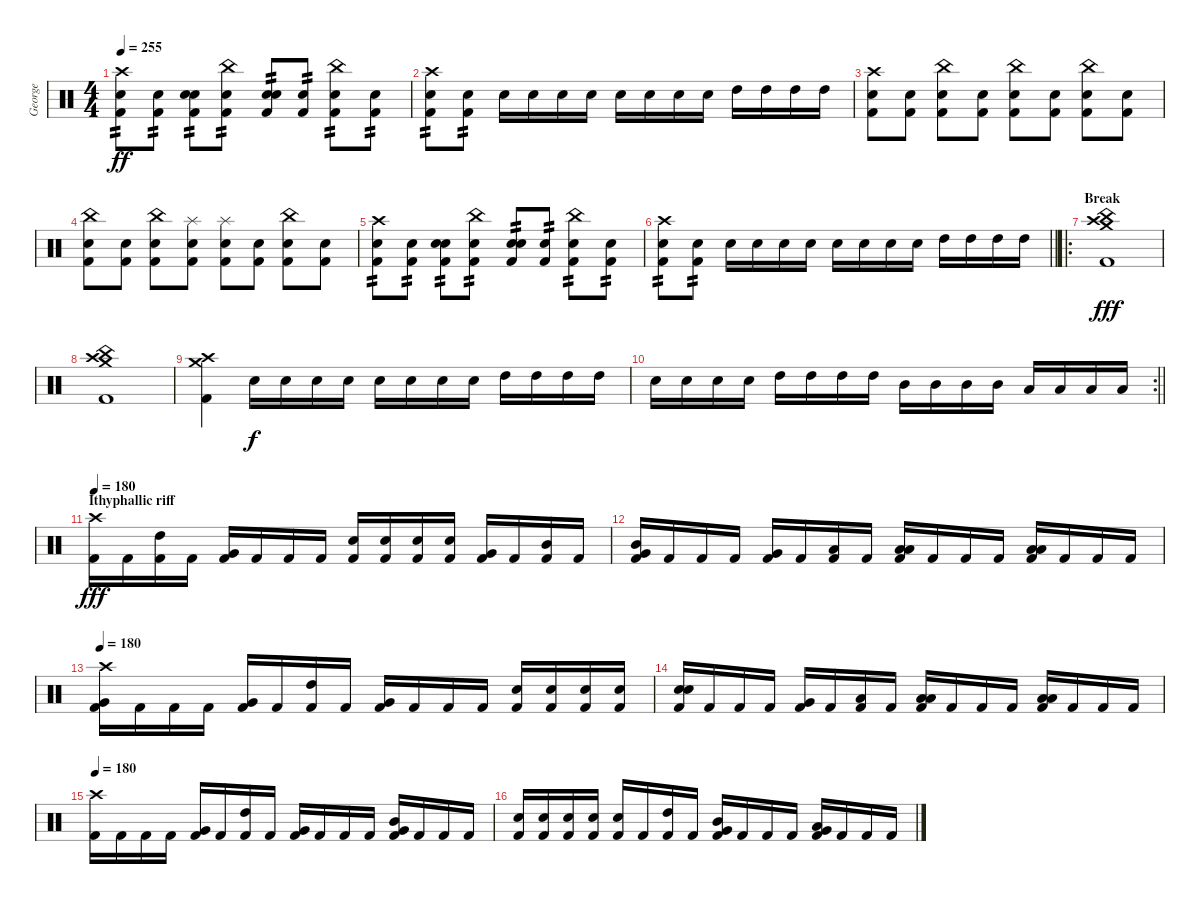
\track ("George" "George") {instrument percussion}
\staff {score}
\articulation defaults
\ts (4 4)
\tempo 255
\clef neutral
\ks c
("Crash high (hit)" "Snare (hit) 2" "Kick (hit) 2").8{tp 2 dy ff} ("Snare (hit) 2" "Kick (hit) 2").8{tp 2} ("Snare (hit)" "Snare (hit) 2" "Kick (hit) 2").8{tp 2} ("China (hit)" "Snare (hit) 2" "Kick (hit) 2").8{tp 2} ("Snare (hit)" "Snare (hit) 2" "Kick (hit) 2").8{tp 2} ("Snare (hit) 2" "Kick (hit) 2").8{tp 2} ("China (hit)" "Snare (hit) 2" "Kick (hit) 2").8{tp 2} ("Snare (hit) 2" "Kick (hit) 2").8{tp 2} |
("Crash high (hit)" "Snare (hit) 2" "Kick (hit) 2").8{tp 2} ("Snare (hit) 2" "Kick (hit) 2").8{tp 2} "Snare (hit) 2".16 "Snare (hit) 2".16 "Snare (hit) 2".16 "Snare (hit) 2".16 "Snare (hit) 2".16 "Snare (hit) 2".16 "Snare (hit) 2".16 "Snare (hit) 2".16 "High Tom (hit)".16 "High Tom (hit)".16 "High Tom (hit)".16 "High Tom (hit)".16 |
("Crash high (hit)" "Snare (hit) 2" "Kick (hit) 2").8 ("Snare (hit) 2" "Kick (hit) 2").8 ("China (hit)" "Snare (hit) 2" "Kick (hit) 2").8 ("Snare (hit) 2" "Kick (hit) 2").8 ("China (hit)" "Snare (hit) 2" "Kick (hit) 2").8 ("Snare (hit) 2" "Kick (hit) 2").8 ("China (hit)" "Snare (hit) 2" "Kick (hit) 2").8 ("Snare (hit) 2" "Kick (hit) 2").8 |
("China (hit)" "Snare (hit) 2" "Kick (hit) 2").8 ("Snare (hit) 2" "Kick (hit) 2").8 ("China (hit)" "Snare (hit) 2" "Kick (hit) 2").8 ("Splash (hit)" "Snare (hit) 2" "Kick (hit) 2").8 ("Splash (hit)" "Snare (hit) 2" "Kick (hit) 2").8 ("Snare (hit) 2" "Kick (hit) 2").8 ("China (hit)" "Snare (hit) 2" "Kick (hit) 2").8 ("Snare (hit) 2" "Kick (hit) 2").8 |
("Crash high (hit)" "Snare (hit) 2" "Kick (hit) 2").8{tp 2} ("Snare (hit) 2" "Kick (hit) 2").8{tp 2} ("Snare (hit)" "Snare (hit) 2" "Kick (hit) 2").8{tp 2} ("China (hit)" "Snare (hit) 2" "Kick (hit) 2").8{tp 2} ("Snare (hit)" "Snare (hit) 2" "Kick (hit) 2").8{tp 2} ("Snare (hit) 2" "Kick (hit) 2").8{tp 2} ("China (hit)" "Snare (hit) 2" "Kick (hit) 2").8{tp 2} ("Snare (hit) 2" "Kick (hit) 2").8{tp 2} |
\barLineRight lightlight
("Crash high (hit)" "Snare (hit) 2" "Kick (hit) 2").8{tp 2} ("Snare (hit) 2" "Kick (hit) 2").8{tp 2} "Snare (hit) 2".16 "Snare (hit) 2".16 "Snare (hit) 2".16 "Snare (hit) 2".16 "Snare (hit) 2".16 "Snare (hit) 2".16 "Snare (hit) 2".16 "Snare (hit) 2".16 "High Tom (hit)".16 "High Tom (hit)".16 "High Tom (hit)".16 "High Tom (hit)".16 |
\ro
\section ("" "Break")
("Crash medium (hit)" "Crash high (hit)" "China (hit)" "Kick (hit) 2").1{dy fff} |
("Crash medium (hit)" "China (hit)" "Crash high (hit)" "Kick (hit) 2").1 |
("Crash high (hit)" "Crash medium (hit)" "Kick (hit) 2").4 "Snare (hit) 2".16{dy f} "Snare (hit) 2".16 "Snare (hit) 2".16 "Snare (hit) 2".16 "Snare (hit) 2".16 "Snare (hit) 2".16 "Snare (hit) 2".16 "Snare (hit) 2".16 "High Tom (hit)".16 "High Tom (hit)".16 "High Tom (hit)".16 "High Tom (hit)".16 |
\rc 2
\barLineRight lightlight "Snare (hit) 2".16 "Snare (hit) 2".16 "Snare (hit) 2".16 "Snare (hit) 2".16 "High Tom (hit)".16 "High Tom (hit)".16 "High Tom (hit)".16 "High Tom (hit)".16 "Mid Tom (hit)".16 "Mid Tom (hit)".16 "Mid Tom (hit)".16 "Mid Tom (hit)".16 "Low Tom (hit)".16 "Low Tom (hit)".16 "Low Tom (hit)".16 "Low Tom (hit)".16
|
\section ("" "Ithyphallic riff")
\tempo 190
\tempo 170
\tempo 180
("Crash high (hit)" "Kick (hit) 2").16{dy fff} "Kick (hit) 2".16 ("High Tom (hit)" "Kick (hit) 2").16 "Kick (hit) 2".16 ("Very Low Tom (hit)" "Kick (hit) 2").16 "Kick (hit) 2".16 "Kick (hit) 2".16 "Kick (hit) 2".16 ("Snare (hit) 2" "Kick (hit) 2").16 ("Snare (hit) 2" "Kick (hit) 2").16 ("Snare (hit) 2" "Kick (hit) 2").16 ("Snare (hit) 2" "Kick (hit) 2").16 ("Very Low Tom (hit)" "Kick (hit) 2").16 "Kick (hit) 2".16 ("Mid Tom (hit)" "Kick (hit) 2").16 "Kick (hit) 2".16 |
("Mid Tom (hit)" "Very Low Tom (hit)" "Kick (hit) 2").16 "Kick (hit) 2".16 "Kick (hit) 2".16 "Kick (hit) 2".16 ("Very Low Tom (hit)" "Kick (hit) 2").16 "Kick (hit) 2".16 ("Low Tom (hit)" "Kick (hit) 2").16 "Kick (hit) 2".16 ("Low Tom (hit)" "Low Floor Tom (hit)" "Kick (hit) 2").16 "Kick (hit) 2".16 "Kick (hit) 2".16 "Kick (hit) 2".16 ("Low Floor Tom (hit)" "Low Tom (hit)" "Kick (hit) 2").16 "Kick (hit) 2".16 "Kick (hit) 2".16 "Kick (hit) 2".16 |
\tempo 190
\tempo 170
\tempo 180
("Crash high (hit)" "Very Low Tom (hit)" "Kick (hit) 2").16 "Kick (hit) 2".16 "Kick (hit) 2".16 "Kick (hit) 2".16 ("Very Low Tom (hit)" "Kick (hit) 2").16 "Kick (hit) 2".16 ("High Tom (hit)" "Kick (hit) 2").16 "Kick (hit) 2".16 ("Very Low Tom (hit)" "Kick (hit) 2").16 "Kick (hit) 2".16 "Kick (hit) 2".16 "Kick (hit) 2".16 ("Snare (hit) 2" "Kick (hit) 2").16 ("Snare (hit) 2" "Kick (hit) 2").16 ("Snare (hit) 2" "Kick (hit) 2").16 ("Snare (hit) 2" "Kick (hit) 2").16 |
("Snare (hit)" "Snare (hit) 2" "Kick (hit) 2").16 "Kick (hit) 2".16 "Kick (hit) 2".16 "Kick (hit) 2".16 ("Very Low Tom (hit)" "Kick (hit) 2").16 "Kick (hit) 2".16 ("Low Tom (hit)" "Kick (hit) 2").16 "Kick (hit) 2".16 ("Low Tom (hit)" "Low Floor Tom (hit)" "Kick (hit) 2").16 "Kick (hit) 2".16 "Kick (hit) 2".16 "Kick (hit) 2".16 ("Low Floor Tom (hit)" "Low Tom (hit)" "Kick (hit) 2").16 "Kick (hit) 2".16 "Kick (hit) 2".16 "Kick (hit) 2".16 |
\tempo 190
\tempo 170
\tempo 180
("Crash high (hit)" "Kick (hit) 2").16 "Kick (hit) 2".16 "Kick (hit) 2".16 "Kick (hit) 2".16 ("Very Low Tom (hit)" "Kick (hit) 2").16 "Kick (hit) 2".16 ("High Tom (hit)" "Kick (hit) 2").16 "Kick (hit) 2".16 ("Very Low Tom (hit)" "Kick (hit) 2").16 "Kick (hit) 2".16 "Kick (hit) 2".16 "Kick (hit) 2".16 ("Mid Tom (hit)" "Very Low Tom (hit)" "Kick (hit) 2").16 "Kick (hit) 2".16 "Kick (hit) 2".16 "Kick (hit) 2".16 |
("Snare (hit) 2" "Kick (hit) 2").16 ("Snare (hit) 2" "Kick (hit) 2").16 ("Snare (hit) 2" "Kick (hit) 2").16 ("Snare (hit) 2" "Kick (hit) 2").16 ("Snare (hit) 2" "Kick (hit) 2").16 "Kick (hit) 2".16 ("High Tom (hit)" "Kick (hit) 2").16 "Kick (hit) 2".16 ("Mid Tom (hit)" "Very Low Tom (hit)" "Kick (hit) 2").16 "Kick (hit) 2".16 "Kick (hit) 2".16 "Kick (hit) 2".16 ("Low Tom (hit)" "Very Low Tom (hit)" "Kick (hit) 2").16 "Kick (hit) 2".16 "Kick (hit) 2".16 "Kick (hit) 2".16
